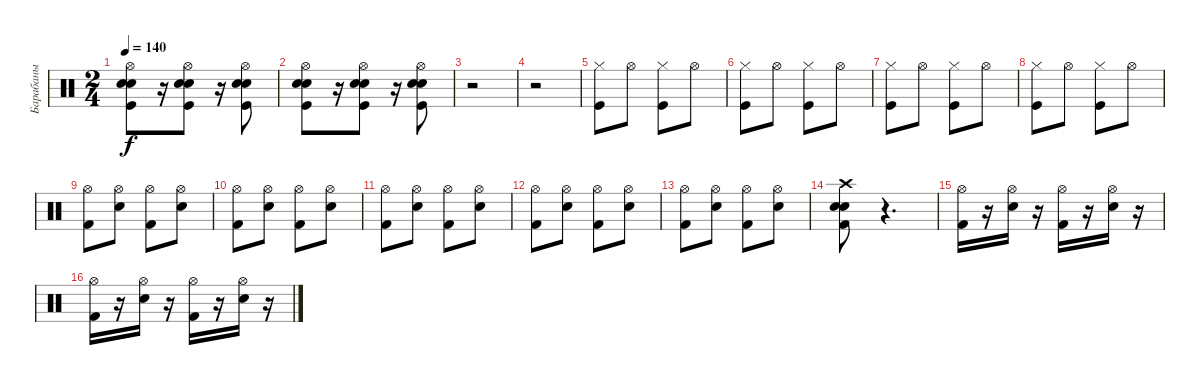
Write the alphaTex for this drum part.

\track ("Барабаны" "Барабаны") {instrument percussion}
\staff {score}
\articulation defaults
\ts (2 4)
\tempo 140
\clef neutral
\ks c
("Electric Snare (hit)" "Electric Snare (hit)" "Kick (hit)" "Hi-Hat (open)").8{dy f} r.16 ("Electric Snare (hit)" "Kick (hit)" "Electric Snare (hit)" "Hi-Hat (open)").8 r.16 ("Electric Snare (hit)" "Kick (hit)" "Electric Snare (hit)" "Hi-Hat (open)").8 |
("Electric Snare (hit)" "Electric Snare (hit)" "Kick (hit)" "Hi-Hat (open)").8 r.16 ("Electric Snare (hit)" "Kick (hit)" "Electric Snare (hit)" "Hi-Hat (open)").8 r.16 ("Electric Snare (hit)" "Kick (hit)" "Electric Snare (hit)" "Hi-Hat (open)").8 |
r.2 |
r.2 |
("Kick (hit)" "Hi-Hat (closed)").8 "Hi-Hat (open)".8 ("Kick (hit)" "Hi-Hat (closed)").8 "Hi-Hat (open)".8 |
("Kick (hit)" "Hi-Hat (closed)").8 "Hi-Hat (open)".8 ("Kick (hit)" "Hi-Hat (closed)").8 "Hi-Hat (open)".8 |
("Kick (hit)" "Hi-Hat (closed)").8 "Hi-Hat (open)".8 ("Kick (hit)" "Hi-Hat (closed)").8 "Hi-Hat (open)".8 |
("Kick (hit)" "Hi-Hat (closed)").8 "Hi-Hat (open)".8 ("Kick (hit)" "Hi-Hat (closed)").8 "Hi-Hat (open)".8 |
("Kick (hit) 2" "Hi-Hat (open)").8 ("Electric Snare (hit)" "Hi-Hat (open)").8 ("Kick (hit) 2" "Hi-Hat (open)").8 ("Electric Snare (hit)" "Hi-Hat (open)").8 |
("Kick (hit) 2" "Hi-Hat (open)").8 ("Electric Snare (hit)" "Hi-Hat (open)").8 ("Kick (hit) 2" "Hi-Hat (open)").8 ("Electric Snare (hit)" "Hi-Hat (open)").8 |
("Kick (hit) 2" "Hi-Hat (open)").8 ("Electric Snare (hit)" "Hi-Hat (open)").8 ("Kick (hit) 2" "Hi-Hat (open)").8 ("Electric Snare (hit)" "Hi-Hat (open)").8 |
("Kick (hit) 2" "Hi-Hat (open)").8 ("Electric Snare (hit)" "Hi-Hat (open)").8 ("Kick (hit) 2" "Hi-Hat (open)").8 ("Electric Snare (hit)" "Hi-Hat (open)").8 |
("Kick (hit) 2" "Hi-Hat (open)").8 ("Electric Snare (hit)" "Hi-Hat (open)").8 ("Kick (hit) 2" "Hi-Hat (open)").8 ("Electric Snare (hit)" "Hi-Hat (open)").8 |
("Electric Snare (hit)" "Kick (hit) 2" "Electric Snare (hit)" "Crash high (hit)").8 r.4{d} |
("Kick (hit) 2" "Hi-Hat (open)").16 r.16 ("Electric Snare (hit)" "Hi-Hat (open)").16 r.16 ("Kick (hit) 2" "Hi-Hat (open)").16 r.16 ("Electric Snare (hit)" "Hi-Hat (open)").16 r.16 |
("Kick (hit) 2" "Hi-Hat (open)").16 r.16 ("Electric Snare (hit)" "Hi-Hat (open)").16 r.16 ("Kick (hit) 2" "Hi-Hat (open)").16 r.16 ("Electric Snare (hit)" "Hi-Hat (open)").16 r.16
